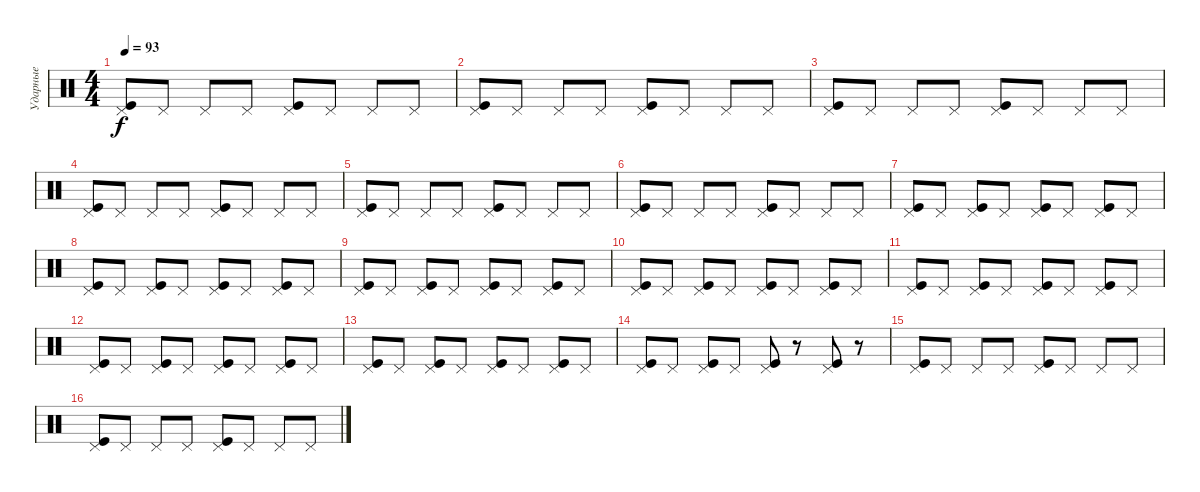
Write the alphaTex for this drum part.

\track ("Ударные" "Ударные") {instrument percussion}
\staff {score}
\articulation defaults
\ts (4 4)
\tempo 93
\clef neutral
\ks c
("Kick (hit)" "Pedal Hi-Hat (hit)").8{dy f} "Pedal Hi-Hat (hit)".8 "Pedal Hi-Hat (hit)".8 "Pedal Hi-Hat (hit)".8 ("Kick (hit)" "Pedal Hi-Hat (hit)").8 "Pedal Hi-Hat (hit)".8 "Pedal Hi-Hat (hit)".8 "Pedal Hi-Hat (hit)".8 |
("Kick (hit)" "Pedal Hi-Hat (hit)").8 "Pedal Hi-Hat (hit)".8 "Pedal Hi-Hat (hit)".8 "Pedal Hi-Hat (hit)".8 ("Kick (hit)" "Pedal Hi-Hat (hit)").8 "Pedal Hi-Hat (hit)".8 "Pedal Hi-Hat (hit)".8 "Pedal Hi-Hat (hit)".8 |
("Kick (hit)" "Pedal Hi-Hat (hit)").8 "Pedal Hi-Hat (hit)".8 "Pedal Hi-Hat (hit)".8 "Pedal Hi-Hat (hit)".8 ("Kick (hit)" "Pedal Hi-Hat (hit)").8 "Pedal Hi-Hat (hit)".8 "Pedal Hi-Hat (hit)".8 "Pedal Hi-Hat (hit)".8 |
("Kick (hit)" "Pedal Hi-Hat (hit)").8 "Pedal Hi-Hat (hit)".8 "Pedal Hi-Hat (hit)".8 "Pedal Hi-Hat (hit)".8 ("Kick (hit)" "Pedal Hi-Hat (hit)").8 "Pedal Hi-Hat (hit)".8 "Pedal Hi-Hat (hit)".8 "Pedal Hi-Hat (hit)".8 |
("Kick (hit)" "Pedal Hi-Hat (hit)").8 "Pedal Hi-Hat (hit)".8 "Pedal Hi-Hat (hit)".8 "Pedal Hi-Hat (hit)".8 ("Kick (hit)" "Pedal Hi-Hat (hit)").8 "Pedal Hi-Hat (hit)".8 "Pedal Hi-Hat (hit)".8 "Pedal Hi-Hat (hit)".8 |
("Kick (hit)" "Pedal Hi-Hat (hit)").8 "Pedal Hi-Hat (hit)".8 "Pedal Hi-Hat (hit)".8 "Pedal Hi-Hat (hit)".8 ("Kick (hit)" "Pedal Hi-Hat (hit)").8 "Pedal Hi-Hat (hit)".8 "Pedal Hi-Hat (hit)".8 "Pedal Hi-Hat (hit)".8 |
("Kick (hit)" "Pedal Hi-Hat (hit)").8 "Pedal Hi-Hat (hit)".8 ("Kick (hit)" "Pedal Hi-Hat (hit)").8 "Pedal Hi-Hat (hit)".8 ("Kick (hit)" "Pedal Hi-Hat (hit)").8 "Pedal Hi-Hat (hit)".8 ("Kick (hit)" "Pedal Hi-Hat (hit)").8 "Pedal Hi-Hat (hit)".8 |
("Kick (hit)" "Pedal Hi-Hat (hit)").8 "Pedal Hi-Hat (hit)".8 ("Kick (hit)" "Pedal Hi-Hat (hit)").8 "Pedal Hi-Hat (hit)".8 ("Kick (hit)" "Pedal Hi-Hat (hit)").8 "Pedal Hi-Hat (hit)".8 ("Kick (hit)" "Pedal Hi-Hat (hit)").8 "Pedal Hi-Hat (hit)".8 |
("Kick (hit)" "Pedal Hi-Hat (hit)").8 "Pedal Hi-Hat (hit)".8 ("Kick (hit)" "Pedal Hi-Hat (hit)").8 "Pedal Hi-Hat (hit)".8 ("Kick (hit)" "Pedal Hi-Hat (hit)").8 "Pedal Hi-Hat (hit)".8 ("Kick (hit)" "Pedal Hi-Hat (hit)").8 "Pedal Hi-Hat (hit)".8 |
("Kick (hit)" "Pedal Hi-Hat (hit)").8 "Pedal Hi-Hat (hit)".8 ("Kick (hit)" "Pedal Hi-Hat (hit)").8 "Pedal Hi-Hat (hit)".8 ("Kick (hit)" "Pedal Hi-Hat (hit)").8 "Pedal Hi-Hat (hit)".8 ("Kick (hit)" "Pedal Hi-Hat (hit)").8 "Pedal Hi-Hat (hit)".8 |
("Kick (hit)" "Pedal Hi-Hat (hit)").8 "Pedal Hi-Hat (hit)".8 ("Kick (hit)" "Pedal Hi-Hat (hit)").8 "Pedal Hi-Hat (hit)".8 ("Kick (hit)" "Pedal Hi-Hat (hit)").8 "Pedal Hi-Hat (hit)".8 ("Kick (hit)" "Pedal Hi-Hat (hit)").8 "Pedal Hi-Hat (hit)".8 |
("Kick (hit)" "Pedal Hi-Hat (hit)").8 "Pedal Hi-Hat (hit)".8 ("Kick (hit)" "Pedal Hi-Hat (hit)").8 "Pedal Hi-Hat (hit)".8 ("Kick (hit)" "Pedal Hi-Hat (hit)").8 "Pedal Hi-Hat (hit)".8 ("Kick (hit)" "Pedal Hi-Hat (hit)").8 "Pedal Hi-Hat (hit)".8 |
("Kick (hit)" "Pedal Hi-Hat (hit)").8 "Pedal Hi-Hat (hit)".8 ("Kick (hit)" "Pedal Hi-Hat (hit)").8 "Pedal Hi-Hat (hit)".8 ("Kick (hit)" "Pedal Hi-Hat (hit)").8 "Pedal Hi-Hat (hit)".8 ("Kick (hit)" "Pedal Hi-Hat (hit)").8 "Pedal Hi-Hat (hit)".8 |
("Kick (hit)" "Pedal Hi-Hat (hit)").8 "Pedal Hi-Hat (hit)".8 ("Kick (hit)" "Pedal Hi-Hat (hit)").8 "Pedal Hi-Hat (hit)".8 ("Kick (hit)" "Pedal Hi-Hat (hit)").8 r.8 ("Kick (hit)" "Pedal Hi-Hat (hit)").8 r.8 |
("Kick (hit)" "Pedal Hi-Hat (hit)").8 "Pedal Hi-Hat (hit)".8 "Pedal Hi-Hat (hit)".8 "Pedal Hi-Hat (hit)".8 ("Kick (hit)" "Pedal Hi-Hat (hit)").8 "Pedal Hi-Hat (hit)".8 "Pedal Hi-Hat (hit)".8 "Pedal Hi-Hat (hit)".8 |
("Kick (hit)" "Pedal Hi-Hat (hit)").8 "Pedal Hi-Hat (hit)".8 "Pedal Hi-Hat (hit)".8 "Pedal Hi-Hat (hit)".8 ("Kick (hit)" "Pedal Hi-Hat (hit)").8 "Pedal Hi-Hat (hit)".8 "Pedal Hi-Hat (hit)".8 "Pedal Hi-Hat (hit)".8
